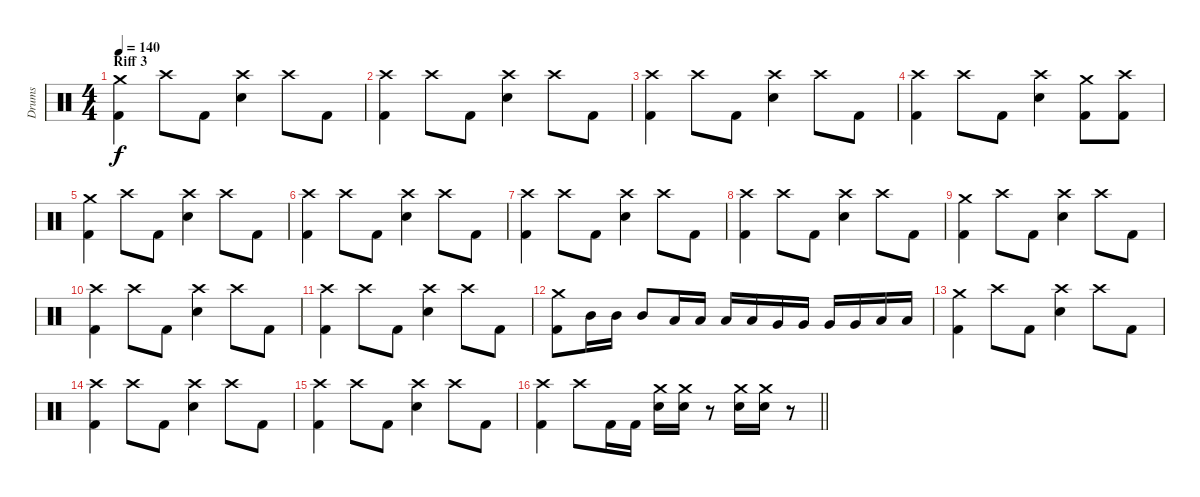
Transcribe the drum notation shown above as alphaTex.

\track ("Drums" "Drums") {instrument percussion}
\staff {score}
\articulation defaults
\ts (4 4)
\section ("" "Riff 3")
\tempo 140
\clef neutral
\ks c
("Crash medium (hit)" "Kick (hit) 2").4{dy f} "Crash high (hit)".8 "Kick (hit) 2".8 ("Electric Snare (hit)" "Crash high (hit)").4 "Crash high (hit)".8 "Kick (hit) 2".8 |
("Crash high (hit)" "Kick (hit) 2").4 "Crash high (hit)".8 "Kick (hit) 2".8 ("Electric Snare (hit)" "Crash high (hit)").4 "Crash high (hit)".8 "Kick (hit) 2".8 |
("Crash high (hit)" "Kick (hit) 2").4 "Crash high (hit)".8 "Kick (hit) 2".8 ("Electric Snare (hit)" "Crash high (hit)").4 "Crash high (hit)".8 "Kick (hit) 2".8 |
("Crash high (hit)" "Kick (hit) 2").4 "Crash high (hit)".8 "Kick (hit) 2".8 ("Electric Snare (hit)" "Crash high (hit)").4 ("Crash medium (hit)" "Kick (hit) 2").8 ("Kick (hit) 2" "Crash high (hit)").8 |
("Crash medium (hit)" "Kick (hit) 2").4 "Crash high (hit)".8 "Kick (hit) 2".8 ("Electric Snare (hit)" "Crash high (hit)").4 "Crash high (hit)".8 "Kick (hit) 2".8 |
("Crash high (hit)" "Kick (hit) 2").4 "Crash high (hit)".8 "Kick (hit) 2".8 ("Electric Snare (hit)" "Crash high (hit)").4 "Crash high (hit)".8 "Kick (hit) 2".8 |
("Crash high (hit)" "Kick (hit) 2").4 "Crash high (hit)".8 "Kick (hit) 2".8 ("Electric Snare (hit)" "Crash high (hit)").4 "Crash high (hit)".8 "Kick (hit) 2".8 |
("Crash high (hit)" "Kick (hit) 2").4 "Crash high (hit)".8 "Kick (hit) 2".8 ("Electric Snare (hit)" "Crash high (hit)").4 "Crash high (hit)".8 "Kick (hit) 2".8 |
("Crash medium (hit)" "Kick (hit) 2").4 "Crash high (hit)".8 "Kick (hit) 2".8 ("Electric Snare (hit)" "Crash high (hit)").4 "Crash high (hit)".8 "Kick (hit) 2".8 |
("Crash high (hit)" "Kick (hit) 2").4 "Crash high (hit)".8 "Kick (hit) 2".8 ("Electric Snare (hit)" "Crash high (hit)").4 "Crash high (hit)".8 "Kick (hit) 2".8 |
("Crash high (hit)" "Kick (hit) 2").4 "Crash high (hit)".8 "Kick (hit) 2".8 ("Electric Snare (hit)" "Crash high (hit)").4 "Crash high (hit)".8 "Kick (hit) 2".8 |
("Crash medium (hit)" "Kick (hit) 2").8 "Mid Tom (hit)".16 "Mid Tom (hit)".16 "Mid Tom (hit)".8 "Low Tom (hit)".16 "Low Tom (hit)".16 "Low Tom (hit)".16 "Low Tom (hit)".16 "Very Low Tom (hit)".16 "Very Low Tom (hit)".16 "Very Low Tom (hit)".16 "Very Low Tom (hit)".16 "Low Floor Tom (hit)".16 "Low Floor Tom (hit)".16 |
("Crash medium (hit)" "Kick (hit) 2").4 "Crash high (hit)".8 "Kick (hit) 2".8 ("Electric Snare (hit)" "Crash high (hit)").4 "Crash high (hit)".8 "Kick (hit) 2".8 |
("Crash high (hit)" "Kick (hit) 2").4 "Crash high (hit)".8 "Kick (hit) 2".8 ("Electric Snare (hit)" "Crash high (hit)").4 "Crash high (hit)".8 "Kick (hit) 2".8 |
("Crash high (hit)" "Kick (hit) 2").4 "Crash high (hit)".8 "Kick (hit) 2".8 ("Electric Snare (hit)" "Crash high (hit)").4 "Crash high (hit)".8 "Kick (hit) 2".8 |
\barLineRight lightlight
("Crash high (hit)" "Kick (hit) 2").4 "Crash high (hit)".8 "Kick (hit) 2".16 "Kick (hit) 2".16 ("Electric Snare (hit)" "Crash medium (hit)").16 ("Electric Snare (hit)" "Crash medium (hit)").16 r.8 ("Electric Snare (hit)" "Crash medium (hit)").16 ("Electric Snare (hit)" "Crash medium (hit)").16 r.8
